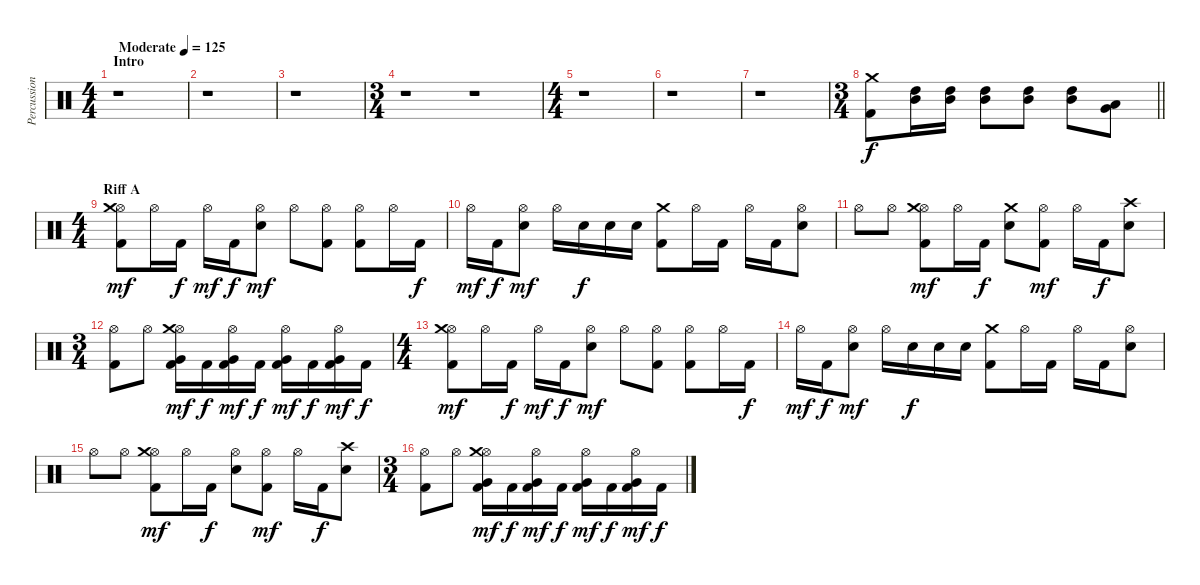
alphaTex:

\track ("Percussion" "Percussion") {instrument percussion}
\staff {score}
\articulation defaults
\ts (4 4)
\section ("" "Intro")
\tempo (125 "Moderate")
\clef neutral
\ks c
r.1{dy f} |
r.1 |
r.1 |
\ts (3 4)
r.1 r.1 |
\ts (4 4)
r.1 |
r.1 |
r.1 |
\ts (3 4)
\barLineRight lightlight
("Crash medium (hit)" "Kick (hit) 2").8 ("High Tom (hit)" "Mid Tom (hit)").16 ("High Tom (hit)" "Mid Tom (hit)").16 ("High Tom (hit)" "Mid Tom (hit)").8 ("High Tom (hit)" "Mid Tom (hit)").8 ("High Tom (hit)" "Mid Tom (hit)").8 ("Low Tom (hit)" "Very Low Tom (hit)").8 |
\ts (4 4)
\section ("" "Riff A")
("Kick (hit) 2" "Hi-Hat (open)" "Crash medium (hit)").8{dy mf} "Hi-Hat (open)".16 "Kick (hit) 2".16{dy f} "Hi-Hat (open)".16{dy mf} "Kick (hit) 2".16{dy f} ("Snare (hit) 2" "Hi-Hat (open)").8{dy mf} "Hi-Hat (open)".8 ("Kick (hit) 2" "Hi-Hat (open)").8 ("Kick (hit) 2" "Hi-Hat (open)").8 "Hi-Hat (open)".16 "Kick (hit) 2".16{dy f} |
"Hi-Hat (open)".16{dy mf} "Kick (hit) 2".16{dy f} ("Snare (hit) 2" "Hi-Hat (open)").8{dy mf} "Hi-Hat (open)".16 "Snare (hit) 2".16{dy f} "Snare (hit) 2".16 "Snare (hit) 2".16 ("Kick (hit) 2" "Crash medium (hit)").8 "Hi-Hat (open)".16 "Kick (hit) 2".16 "Hi-Hat (open)".16 "Kick (hit) 2".16 ("Snare (hit) 2" "Hi-Hat (open)").8 |
"Hi-Hat (open)".8 "Hi-Hat (open)".8 ("Kick (hit) 2" "Hi-Hat (open)" "Crash medium (hit)").8{dy mf} "Hi-Hat (open)".16 "Kick (hit) 2".16{dy f} ("Snare (hit) 2" "Crash medium (hit)").8 ("Kick (hit) 2" "Hi-Hat (open)").8{dy mf} "Hi-Hat (open)".16 "Kick (hit) 2".16{dy f} ("Snare (hit) 2" "Crash high (hit)").8 |
\ts (3 4)
("Kick (hit) 2" "Hi-Hat (open)").8 "Hi-Hat (open)".8 ("Kick (hit) 2" "Very Low Tom (hit)" "Hi-Hat (open)" "Crash medium (hit)").16{dy mf} "Kick (hit) 2".16{dy f} ("Kick (hit) 2" "Very Low Tom (hit)" "Hi-Hat (open)").16{dy mf} "Kick (hit) 2".16{dy f} ("Kick (hit) 2" "Very Low Tom (hit)" "Hi-Hat (open)").16{dy mf} "Kick (hit) 2".16{dy f} ("Kick (hit) 2" "Very Low Tom (hit)" "Hi-Hat (open)").16{dy mf} "Kick (hit) 2".16{dy f} |
\ts (4 4)
("Kick (hit) 2" "Hi-Hat (open)" "Crash medium (hit)").8{dy mf} "Hi-Hat (open)".16 "Kick (hit) 2".16{dy f} "Hi-Hat (open)".16{dy mf} "Kick (hit) 2".16{dy f} ("Snare (hit) 2" "Hi-Hat (open)").8{dy mf} "Hi-Hat (open)".8 ("Kick (hit) 2" "Hi-Hat (open)").8 ("Kick (hit) 2" "Hi-Hat (open)").8 "Hi-Hat (open)".16 "Kick (hit) 2".16{dy f} |
"Hi-Hat (open)".16{dy mf} "Kick (hit) 2".16{dy f} ("Snare (hit) 2" "Hi-Hat (open)").8{dy mf} "Hi-Hat (open)".16 "Snare (hit) 2".16{dy f} "Snare (hit) 2".16 "Snare (hit) 2".16 ("Kick (hit) 2" "Crash medium (hit)").8 "Hi-Hat (open)".16 "Kick (hit) 2".16 "Hi-Hat (open)".16 "Kick (hit) 2".16 ("Snare (hit) 2" "Hi-Hat (open)").8 |
"Hi-Hat (open)".8 "Hi-Hat (open)".8 ("Kick (hit) 2" "Hi-Hat (open)" "Crash medium (hit)").8{dy mf} "Hi-Hat (open)".16 "Kick (hit) 2".16{dy f} ("Snare (hit) 2" "Hi-Hat (open)").8 ("Kick (hit) 2" "Hi-Hat (open)").8{dy mf} "Hi-Hat (open)".16 "Kick (hit) 2".16{dy f} ("Snare (hit) 2" "Crash high (hit)").8 |
\ts (3 4)
("Kick (hit) 2" "Hi-Hat (open)").8 "Hi-Hat (open)".8 ("Kick (hit) 2" "Very Low Tom (hit)" "Hi-Hat (open)" "Crash medium (hit)").16{dy mf} "Kick (hit) 2".16{dy f} ("Kick (hit) 2" "Very Low Tom (hit)" "Hi-Hat (open)").16{dy mf} "Kick (hit) 2".16{dy f} ("Kick (hit) 2" "Very Low Tom (hit)" "Hi-Hat (open)").16{dy mf} "Kick (hit) 2".16{dy f} ("Kick (hit) 2" "Very Low Tom (hit)" "Hi-Hat (open)").16{dy mf} "Kick (hit) 2".16{dy f}
